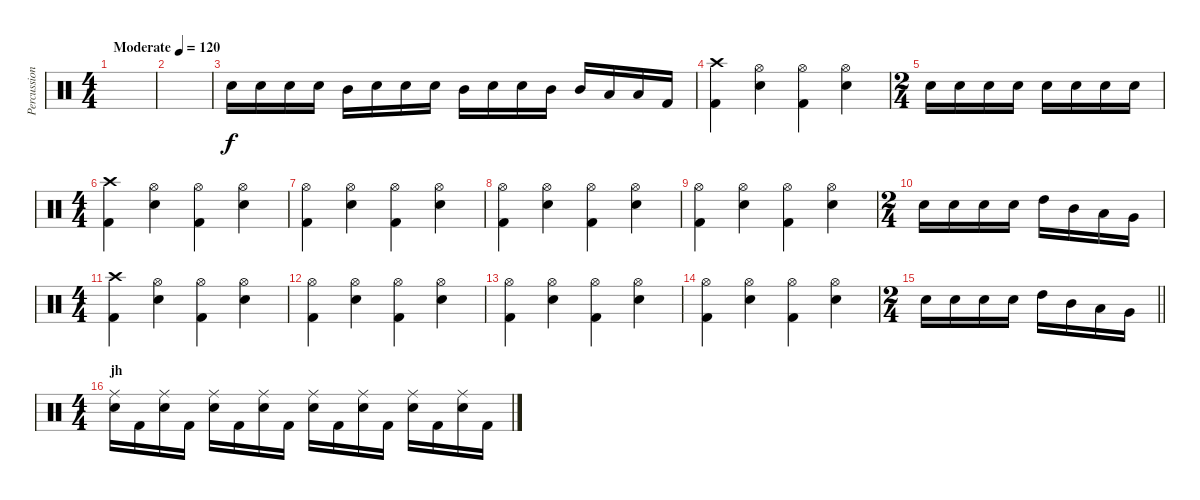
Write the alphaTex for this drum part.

\track ("Percussion" "Percussion") {instrument percussion}
\staff {score}
\articulation defaults
\ts (4 4)
\tempo (120 "Moderate")
\clef neutral
\ks c
|
|
"Electric Snare (hit)".16 "Electric Snare (hit)".16 "Electric Snare (hit)".16 "Electric Snare (hit)".16 "Mid Tom (hit)".16 "Electric Snare (hit)".16 "Electric Snare (hit)".16 "Electric Snare (hit)".16 "Mid Tom (hit)".16 "Electric Snare (hit)".16 "Electric Snare (hit)".16 "Mid Tom (hit)".16 "Mid Tom (hit)".16 "Low Tom (hit)".16 "Low Tom (hit)".16 "Kick (hit) 2".16 |
("Crash high (hit)" "Kick (hit) 2").4 ("Hi-Hat (open)" "Electric Snare (hit)").4 ("Hi-Hat (open)" "Kick (hit) 2").4 ("Hi-Hat (open)" "Electric Snare (hit)").4 |
\ts (2 4)
"Electric Snare (hit)".16 "Electric Snare (hit)".16 "Electric Snare (hit)".16 "Electric Snare (hit)".16 "Electric Snare (hit)".16 "Electric Snare (hit)".16 "Electric Snare (hit)".16 "Electric Snare (hit)".16 |
\ts (4 4)
("Crash high (hit)" "Kick (hit) 2").4 ("Hi-Hat (open)" "Electric Snare (hit)").4 ("Hi-Hat (open)" "Kick (hit) 2").4 ("Hi-Hat (open)" "Electric Snare (hit)").4 |
("Hi-Hat (open)" "Kick (hit) 2").4 ("Hi-Hat (open)" "Electric Snare (hit)").4 ("Hi-Hat (open)" "Kick (hit) 2").4 ("Hi-Hat (open)" "Electric Snare (hit)").4 |
("Hi-Hat (open)" "Kick (hit) 2").4 ("Hi-Hat (open)" "Electric Snare (hit)").4 ("Hi-Hat (open)" "Kick (hit) 2").4 ("Hi-Hat (open)" "Electric Snare (hit)").4 |
("Hi-Hat (open)" "Kick (hit) 2").4 ("Hi-Hat (open)" "Electric Snare (hit)").4 ("Hi-Hat (open)" "Kick (hit) 2").4 ("Hi-Hat (open)" "Electric Snare (hit)").4 |
\ts (2 4)
"Electric Snare (hit)".16 "Electric Snare (hit)".16 "Electric Snare (hit)".16 "Electric Snare (hit)".16 "High Tom (hit)".16 "Mid Tom (hit)".16 "Low Tom (hit)".16 "Very Low Tom (hit)".16 |
\ts (4 4)
("Crash high (hit)" "Kick (hit) 2").4 ("Hi-Hat (open)" "Electric Snare (hit)").4 ("Hi-Hat (open)" "Kick (hit) 2").4 ("Hi-Hat (open)" "Electric Snare (hit)").4 |
("Hi-Hat (open)" "Kick (hit) 2").4 ("Hi-Hat (open)" "Electric Snare (hit)").4 ("Hi-Hat (open)" "Kick (hit) 2").4 ("Hi-Hat (open)" "Electric Snare (hit)").4 |
("Hi-Hat (open)" "Kick (hit) 2").4 ("Hi-Hat (open)" "Electric Snare (hit)").4 ("Hi-Hat (open)" "Kick (hit) 2").4 ("Hi-Hat (open)" "Electric Snare (hit)").4 |
("Hi-Hat (open)" "Kick (hit) 2").4 ("Hi-Hat (open)" "Electric Snare (hit)").4 ("Hi-Hat (open)" "Kick (hit) 2").4 ("Hi-Hat (open)" "Electric Snare (hit)").4 |
\ts (2 4)
\barLineRight lightlight "Electric Snare (hit)".16 "Electric Snare (hit)".16 "Electric Snare (hit)".16 "Electric Snare (hit)".16 "High Tom (hit)".16 "Mid Tom (hit)".16 "Low Tom (hit)".16 "Very Low Tom (hit)".16
|
\ts (4 4)
\section ("" "jh")
("Electric Snare (hit)" "Ride (middle)").16 "Kick (hit) 2".16 ("Electric Snare (hit)" "Ride (middle)").16 "Kick (hit) 2".16 ("Electric Snare (hit)" "Ride (middle)").16 "Kick (hit) 2".16 ("Electric Snare (hit)" "Ride (middle)").16 "Kick (hit) 2".16 ("Electric Snare (hit)" "Ride (middle)").16 "Kick (hit) 2".16 ("Electric Snare (hit)" "Ride (middle)").16 "Kick (hit) 2".16 ("Electric Snare (hit)" "Ride (middle)").16 "Kick (hit) 2".16 ("Electric Snare (hit)" "Ride (middle)").16 "Kick (hit) 2".16
